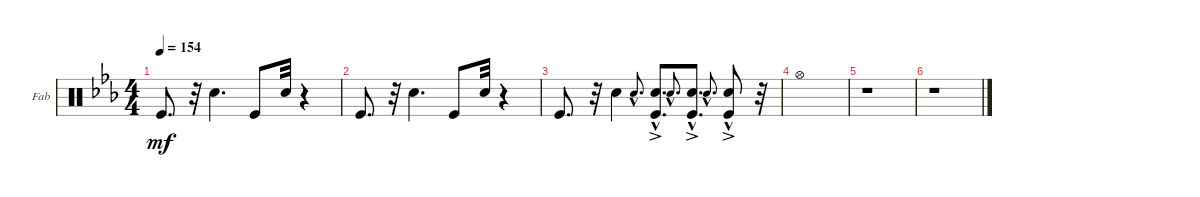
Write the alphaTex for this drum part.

\defaultSystemsLayout 4
\bracketExtendMode groupsimilarinstruments
\firstSystemTrackNameOrientation horizontal
\otherSystemsTrackNameOrientation horizontal
\track ("Drums" "Fab") {instrument percussion}
\staff {score}
\articulation defaults
\ts (4 4)
\tempo 154
\clef neutral
\scale
0.451062
\ks eb "Kick (hit)".8{d dy mf}
r.32 "Snare (hit) 2".4{d} "Kick (hit)".8 "Snare (hit) 2".32 r.4 |
\scale
0.520349 "Kick (hit)".8{d} r.32 "Snare (hit) 2".4{d} "Kick (hit)".8 "Snare (hit) 2".32 r.4 |
\scale
0.479712 "Kick (hit)".8{d} r.32 "Snare (hit) 2".4 "Snare (hit) 2"{hac}.8{d gr onbeat} ("Snare (hit) 2"{hac} "Kick (hit)"{ac}).8{d} "Snare (hit) 2"{hac}.8{d gr onbeat} ("Snare (hit) 2"{hac} "Kick (hit)"{ac}).8{d} "Snare (hit) 2"{hac}.8{d gr onbeat} ("Snare (hit) 2"{hac} "Kick (hit)"{ac}).8 r.32 |
\scale
0.47032 "Hi-Hat (open)".1 |
\scale
0.291836 r.1 |
\scale
0.238383 r.1
